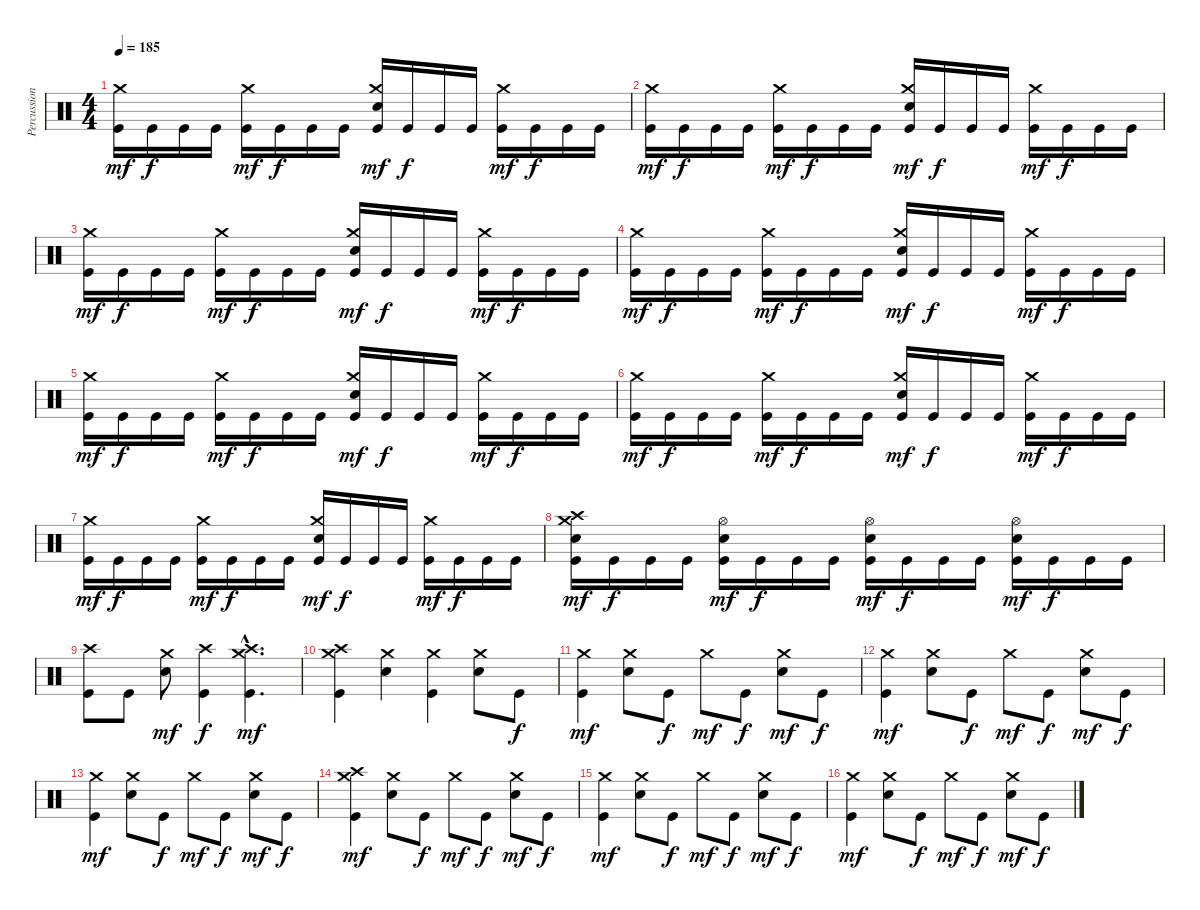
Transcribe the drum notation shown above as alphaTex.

\track ("Percussions" "Percussion") {instrument percussion}
\staff {score}
\articulation defaults
\ts (4 4)
\tempo 185
\clef neutral
\ks c
("Kick (hit)" "Crash medium (hit)").16{dy mf} "Kick (hit)".16{dy f} "Kick (hit)".16 "Kick (hit)".16 ("Kick (hit)" "Crash medium (hit)").16{dy mf} "Kick (hit)".16{dy f} "Kick (hit)".16 "Kick (hit)".16 ("Kick (hit)" "Electric Snare (hit)" "Crash medium (hit)").16{dy mf} "Kick (hit)".16{dy f} "Kick (hit)".16 "Kick (hit)".16 ("Kick (hit)" "Crash medium (hit)").16{dy mf} "Kick (hit)".16{dy f} "Kick (hit)".16 "Kick (hit)".16 |
("Kick (hit)" "Crash medium (hit)").16{dy mf} "Kick (hit)".16{dy f} "Kick (hit)".16 "Kick (hit)".16 ("Kick (hit)" "Crash medium (hit)").16{dy mf} "Kick (hit)".16{dy f} "Kick (hit)".16 "Kick (hit)".16 ("Kick (hit)" "Electric Snare (hit)" "Crash medium (hit)").16{dy mf} "Kick (hit)".16{dy f} "Kick (hit)".16 "Kick (hit)".16 ("Kick (hit)" "Crash medium (hit)").16{dy mf} "Kick (hit)".16{dy f} "Kick (hit)".16 "Kick (hit)".16 |
("Kick (hit)" "Crash medium (hit)").16{dy mf} "Kick (hit)".16{dy f} "Kick (hit)".16 "Kick (hit)".16 ("Kick (hit)" "Crash medium (hit)").16{dy mf} "Kick (hit)".16{dy f} "Kick (hit)".16 "Kick (hit)".16 ("Kick (hit)" "Electric Snare (hit)" "Crash medium (hit)").16{dy mf} "Kick (hit)".16{dy f} "Kick (hit)".16 "Kick (hit)".16 ("Kick (hit)" "Crash medium (hit)").16{dy mf} "Kick (hit)".16{dy f} "Kick (hit)".16 "Kick (hit)".16 |
("Kick (hit)" "Crash medium (hit)").16{dy mf} "Kick (hit)".16{dy f} "Kick (hit)".16 "Kick (hit)".16 ("Kick (hit)" "Crash medium (hit)").16{dy mf} "Kick (hit)".16{dy f} "Kick (hit)".16 "Kick (hit)".16 ("Kick (hit)" "Electric Snare (hit)" "Crash medium (hit)").16{dy mf} "Kick (hit)".16{dy f} "Kick (hit)".16 "Kick (hit)".16 ("Kick (hit)" "Crash medium (hit)").16{dy mf} "Kick (hit)".16{dy f} "Kick (hit)".16 "Kick (hit)".16 |
("Kick (hit)" "Crash medium (hit)").16{dy mf} "Kick (hit)".16{dy f} "Kick (hit)".16 "Kick (hit)".16 ("Kick (hit)" "Crash medium (hit)").16{dy mf} "Kick (hit)".16{dy f} "Kick (hit)".16 "Kick (hit)".16 ("Kick (hit)" "Electric Snare (hit)" "Crash medium (hit)").16{dy mf} "Kick (hit)".16{dy f} "Kick (hit)".16 "Kick (hit)".16 ("Kick (hit)" "Crash medium (hit)").16{dy mf} "Kick (hit)".16{dy f} "Kick (hit)".16 "Kick (hit)".16 |
("Kick (hit)" "Crash medium (hit)").16{dy mf} "Kick (hit)".16{dy f} "Kick (hit)".16 "Kick (hit)".16 ("Kick (hit)" "Crash medium (hit)").16{dy mf} "Kick (hit)".16{dy f} "Kick (hit)".16 "Kick (hit)".16 ("Kick (hit)" "Electric Snare (hit)" "Crash medium (hit)").16{dy mf} "Kick (hit)".16{dy f} "Kick (hit)".16 "Kick (hit)".16 ("Kick (hit)" "Crash medium (hit)").16{dy mf} "Kick (hit)".16{dy f} "Kick (hit)".16 "Kick (hit)".16 |
("Kick (hit)" "Crash medium (hit)").16{dy mf} "Kick (hit)".16{dy f} "Kick (hit)".16 "Kick (hit)".16 ("Kick (hit)" "Crash medium (hit)").16{dy mf} "Kick (hit)".16{dy f} "Kick (hit)".16 "Kick (hit)".16 ("Kick (hit)" "Electric Snare (hit)" "Crash medium (hit)").16{dy mf} "Kick (hit)".16{dy f} "Kick (hit)".16 "Kick (hit)".16 ("Kick (hit)" "Crash medium (hit)").16{dy mf} "Kick (hit)".16{dy f} "Kick (hit)".16 "Kick (hit)".16 |
("Kick (hit)" "Electric Snare (hit)" "Crash medium (hit)" "Crash high (hit)").16{dy mf} "Kick (hit)".16{dy f} "Kick (hit)".16 "Kick (hit)".16 ("Kick (hit)" "Electric Snare (hit)" "Hi-Hat (open)").16{dy mf} "Kick (hit)".16{dy f} "Kick (hit)".16 "Kick (hit)".16 ("Kick (hit)" "Electric Snare (hit)" "Hi-Hat (open)").16{dy mf} "Kick (hit)".16{dy f} "Kick (hit)".16 "Kick (hit)".16 ("Kick (hit)" "Electric Snare (hit)" "Hi-Hat (open)").16{dy mf} "Kick (hit)".16{dy f} "Kick (hit)".16 "Kick (hit)".16 |
("Kick (hit)" "Crash high (hit)").8 "Kick (hit)".8 ("Electric Snare (hit)" "Crash medium (hit)").8{dy mf} ("Kick (hit)" "Crash high (hit)").4{dy f} ("Kick (hit)"{hac} "Crash high (hit)"{hac} "Crash medium (hit)"{hac}).4{d dy mf} |
("Kick (hit)" "Crash medium (hit)" "Crash high (hit)").4 ("Electric Snare (hit)" "Crash medium (hit)").4 ("Kick (hit)" "Crash medium (hit)").4 ("Electric Snare (hit)" "Crash medium (hit)").8 "Kick (hit)".8{dy f} |
("Kick (hit)" "Crash medium (hit)").4{dy mf} ("Electric Snare (hit)" "Crash medium (hit)").8 "Kick (hit)".8{dy f} "Crash medium (hit)".8{dy mf} "Kick (hit)".8{dy f} ("Electric Snare (hit)" "Crash medium (hit)").8{dy mf} "Kick (hit)".8{dy f} |
("Kick (hit)" "Crash medium (hit)").4{dy mf} ("Electric Snare (hit)" "Crash medium (hit)").8 "Kick (hit)".8{dy f} "Crash medium (hit)".8{dy mf} "Kick (hit)".8{dy f} ("Electric Snare (hit)" "Crash medium (hit)").8{dy mf} "Kick (hit)".8{dy f} |
("Kick (hit)" "Crash medium (hit)").4{dy mf} ("Electric Snare (hit)" "Crash medium (hit)").8 "Kick (hit)".8{dy f} "Crash medium (hit)".8{dy mf} "Kick (hit)".8{dy f} ("Electric Snare (hit)" "Crash medium (hit)").8{dy mf} "Kick (hit)".8{dy f} |
("Kick (hit)" "Crash medium (hit)" "Crash high (hit)").4{dy mf} ("Electric Snare (hit)" "Crash medium (hit)").8 "Kick (hit)".8{dy f} "Crash medium (hit)".8{dy mf} "Kick (hit)".8{dy f} ("Electric Snare (hit)" "Crash medium (hit)").8{dy mf} "Kick (hit)".8{dy f} |
("Kick (hit)" "Crash medium (hit)").4{dy mf} ("Electric Snare (hit)" "Crash medium (hit)").8 "Kick (hit)".8{dy f} "Crash medium (hit)".8{dy mf} "Kick (hit)".8{dy f} ("Electric Snare (hit)" "Crash medium (hit)").8{dy mf} "Kick (hit)".8{dy f} |
("Kick (hit)" "Crash medium (hit)").4{dy mf} ("Electric Snare (hit)" "Crash medium (hit)").8 "Kick (hit)".8{dy f} "Crash medium (hit)".8{dy mf} "Kick (hit)".8{dy f} ("Electric Snare (hit)" "Crash medium (hit)").8{dy mf} "Kick (hit)".8{dy f}
